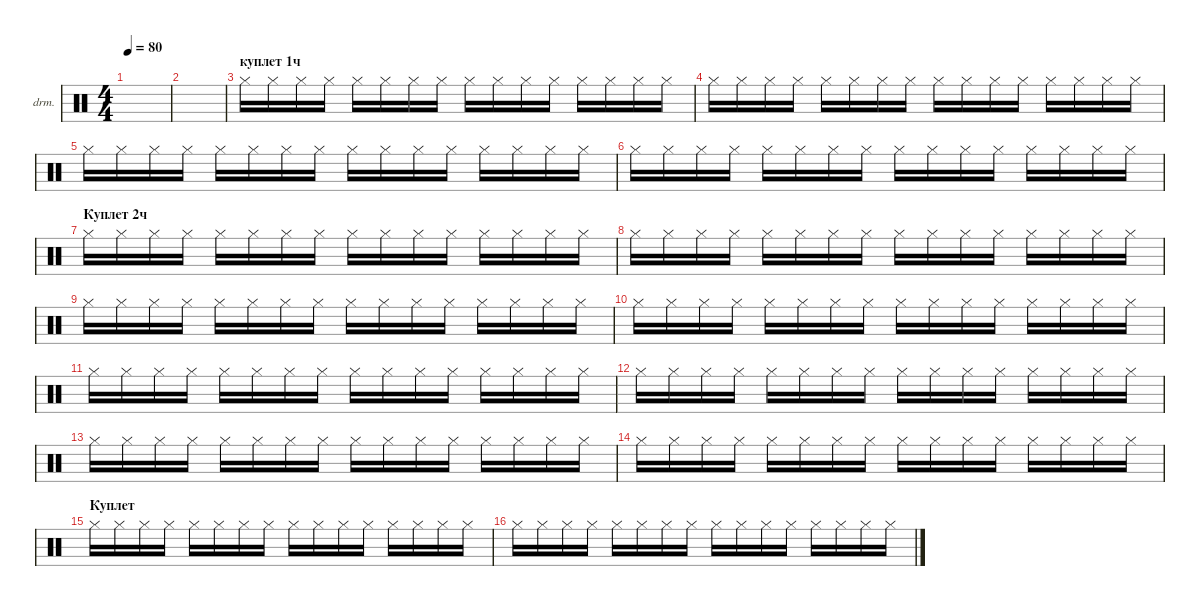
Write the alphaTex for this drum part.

\defaultSystemsLayout 4
\hideDynamics
\bracketExtendMode nobrackets
\firstSystemTrackNameOrientation horizontal
\otherSystemsTrackNameOrientation horizontal
\track ("Drumkit" "drm.") {instrument percussion}
\staff {score}
\articulation defaults
\ts (4 4)
\tempo 80
\clef neutral
\ks c
|
|
\section ("" "куплет 1ч")
"Hi-Hat (closed)".16{dy mp} "Hi-Hat (closed)".16 "Hi-Hat (closed)".16 "Hi-Hat (closed)".16 "Hi-Hat (closed)".16 "Hi-Hat (closed)".16 "Hi-Hat (closed)".16 "Hi-Hat (closed)".16 "Hi-Hat (closed)".16 "Hi-Hat (closed)".16 "Hi-Hat (closed)".16 "Hi-Hat (closed)".16 "Hi-Hat (closed)".16 "Hi-Hat (closed)".16 "Hi-Hat (closed)".16 "Hi-Hat (closed)".16 |
"Hi-Hat (closed)".16 "Hi-Hat (closed)".16 "Hi-Hat (closed)".16 "Hi-Hat (closed)".16 "Hi-Hat (closed)".16 "Hi-Hat (closed)".16 "Hi-Hat (closed)".16 "Hi-Hat (closed)".16 "Hi-Hat (closed)".16 "Hi-Hat (closed)".16 "Hi-Hat (closed)".16 "Hi-Hat (closed)".16 "Hi-Hat (closed)".16 "Hi-Hat (closed)".16 "Hi-Hat (closed)".16 "Hi-Hat (closed)".16 |
"Hi-Hat (closed)".16 "Hi-Hat (closed)".16 "Hi-Hat (closed)".16 "Hi-Hat (closed)".16 "Hi-Hat (closed)".16 "Hi-Hat (closed)".16 "Hi-Hat (closed)".16 "Hi-Hat (closed)".16 "Hi-Hat (closed)".16 "Hi-Hat (closed)".16 "Hi-Hat (closed)".16 "Hi-Hat (closed)".16 "Hi-Hat (closed)".16 "Hi-Hat (closed)".16 "Hi-Hat (closed)".16 "Hi-Hat (closed)".16 |
"Hi-Hat (closed)".16 "Hi-Hat (closed)".16 "Hi-Hat (closed)".16 "Hi-Hat (closed)".16 "Hi-Hat (closed)".16 "Hi-Hat (closed)".16 "Hi-Hat (closed)".16 "Hi-Hat (closed)".16 "Hi-Hat (closed)".16 "Hi-Hat (closed)".16 "Hi-Hat (closed)".16 "Hi-Hat (closed)".16 "Hi-Hat (closed)".16 "Hi-Hat (closed)".16 "Hi-Hat (closed)".16 "Hi-Hat (closed)".16 |
\section ("" "Куплет 2ч")
"Hi-Hat (closed)".16 "Hi-Hat (closed)".16 "Hi-Hat (closed)".16 "Hi-Hat (closed)".16 "Hi-Hat (closed)".16 "Hi-Hat (closed)".16 "Hi-Hat (closed)".16 "Hi-Hat (closed)".16 "Hi-Hat (closed)".16 "Hi-Hat (closed)".16 "Hi-Hat (closed)".16 "Hi-Hat (closed)".16 "Hi-Hat (closed)".16 "Hi-Hat (closed)".16 "Hi-Hat (closed)".16 "Hi-Hat (closed)".16 |
"Hi-Hat (closed)".16 "Hi-Hat (closed)".16 "Hi-Hat (closed)".16 "Hi-Hat (closed)".16 "Hi-Hat (closed)".16 "Hi-Hat (closed)".16 "Hi-Hat (closed)".16 "Hi-Hat (closed)".16 "Hi-Hat (closed)".16 "Hi-Hat (closed)".16 "Hi-Hat (closed)".16 "Hi-Hat (closed)".16 "Hi-Hat (closed)".16 "Hi-Hat (closed)".16 "Hi-Hat (closed)".16 "Hi-Hat (closed)".16 |
"Hi-Hat (closed)".16 "Hi-Hat (closed)".16 "Hi-Hat (closed)".16 "Hi-Hat (closed)".16 "Hi-Hat (closed)".16 "Hi-Hat (closed)".16 "Hi-Hat (closed)".16 "Hi-Hat (closed)".16 "Hi-Hat (closed)".16 "Hi-Hat (closed)".16 "Hi-Hat (closed)".16 "Hi-Hat (closed)".16 "Hi-Hat (closed)".16 "Hi-Hat (closed)".16 "Hi-Hat (closed)".16 "Hi-Hat (closed)".16 |
"Hi-Hat (closed)".16 "Hi-Hat (closed)".16 "Hi-Hat (closed)".16 "Hi-Hat (closed)".16 "Hi-Hat (closed)".16 "Hi-Hat (closed)".16 "Hi-Hat (closed)".16 "Hi-Hat (closed)".16 "Hi-Hat (closed)".16 "Hi-Hat (closed)".16 "Hi-Hat (closed)".16 "Hi-Hat (closed)".16 "Hi-Hat (closed)".16 "Hi-Hat (closed)".16 "Hi-Hat (closed)".16 "Hi-Hat (closed)".16 |
"Hi-Hat (closed)".16 "Hi-Hat (closed)".16 "Hi-Hat (closed)".16 "Hi-Hat (closed)".16 "Hi-Hat (closed)".16 "Hi-Hat (closed)".16 "Hi-Hat (closed)".16 "Hi-Hat (closed)".16 "Hi-Hat (closed)".16 "Hi-Hat (closed)".16 "Hi-Hat (closed)".16 "Hi-Hat (closed)".16 "Hi-Hat (closed)".16 "Hi-Hat (closed)".16 "Hi-Hat (closed)".16 "Hi-Hat (closed)".16 |
"Hi-Hat (closed)".16 "Hi-Hat (closed)".16 "Hi-Hat (closed)".16 "Hi-Hat (closed)".16 "Hi-Hat (closed)".16 "Hi-Hat (closed)".16 "Hi-Hat (closed)".16 "Hi-Hat (closed)".16 "Hi-Hat (closed)".16 "Hi-Hat (closed)".16 "Hi-Hat (closed)".16 "Hi-Hat (closed)".16 "Hi-Hat (closed)".16 "Hi-Hat (closed)".16 "Hi-Hat (closed)".16 "Hi-Hat (closed)".16 |
"Hi-Hat (closed)".16 "Hi-Hat (closed)".16 "Hi-Hat (closed)".16 "Hi-Hat (closed)".16 "Hi-Hat (closed)".16 "Hi-Hat (closed)".16 "Hi-Hat (closed)".16 "Hi-Hat (closed)".16 "Hi-Hat (closed)".16 "Hi-Hat (closed)".16 "Hi-Hat (closed)".16 "Hi-Hat (closed)".16 "Hi-Hat (closed)".16 "Hi-Hat (closed)".16 "Hi-Hat (closed)".16 "Hi-Hat (closed)".16 |
"Hi-Hat (closed)".16 "Hi-Hat (closed)".16 "Hi-Hat (closed)".16 "Hi-Hat (closed)".16 "Hi-Hat (closed)".16 "Hi-Hat (closed)".16 "Hi-Hat (closed)".16 "Hi-Hat (closed)".16 "Hi-Hat (closed)".16 "Hi-Hat (closed)".16 "Hi-Hat (closed)".16 "Hi-Hat (closed)".16 "Hi-Hat (closed)".16 "Hi-Hat (closed)".16 "Hi-Hat (closed)".16 "Hi-Hat (closed)".16 |
\section ("" "Куплет")
"Hi-Hat (closed)".16 "Hi-Hat (closed)".16 "Hi-Hat (closed)".16 "Hi-Hat (closed)".16 "Hi-Hat (closed)".16 "Hi-Hat (closed)".16 "Hi-Hat (closed)".16 "Hi-Hat (closed)".16 "Hi-Hat (closed)".16 "Hi-Hat (closed)".16 "Hi-Hat (closed)".16 "Hi-Hat (closed)".16 "Hi-Hat (closed)".16 "Hi-Hat (closed)".16 "Hi-Hat (closed)".16 "Hi-Hat (closed)".16 |
"Hi-Hat (closed)".16 "Hi-Hat (closed)".16 "Hi-Hat (closed)".16 "Hi-Hat (closed)".16 "Hi-Hat (closed)".16 "Hi-Hat (closed)".16 "Hi-Hat (closed)".16 "Hi-Hat (closed)".16 "Hi-Hat (closed)".16 "Hi-Hat (closed)".16 "Hi-Hat (closed)".16 "Hi-Hat (closed)".16 "Hi-Hat (closed)".16 "Hi-Hat (closed)".16 "Hi-Hat (closed)".16 "Hi-Hat (closed)".16
